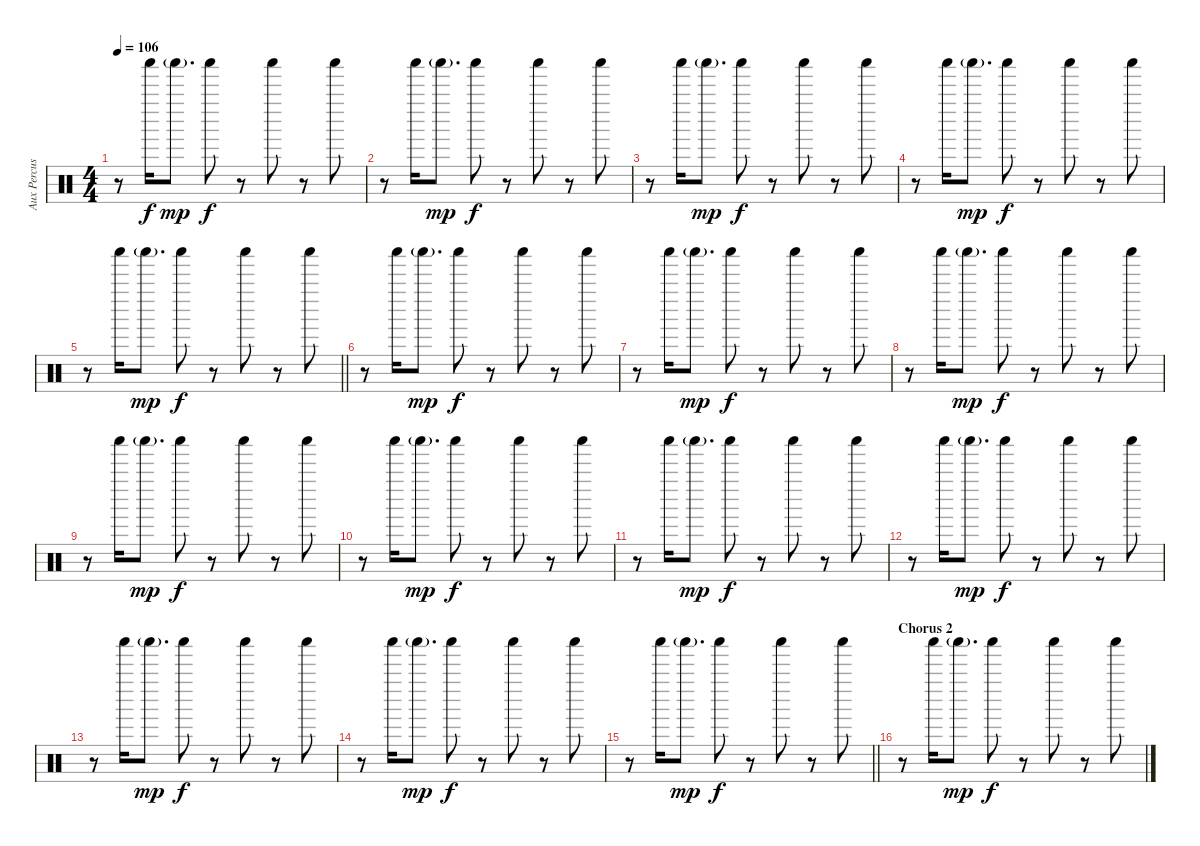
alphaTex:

\track ("Aux Percussion" "Aux Percus") {instrument percussion}
\staff {score}
\articulation defaults
\ts (4 4)
\tempo 106
\clef neutral
\ks c
r.8{dy f} "Shaker (hit)".16 "Shaker (hit)"{g}.8{d dy mp} "Shaker (hit)".8{dy f} r.8 "Shaker (hit)".8 r.8 "Shaker (hit)".8 |
r.8 "Shaker (hit)".16 "Shaker (hit)"{g}.8{d dy mp} "Shaker (hit)".8{dy f} r.8 "Shaker (hit)".8 r.8 "Shaker (hit)".8 |
r.8 "Shaker (hit)".16 "Shaker (hit)"{g}.8{d dy mp} "Shaker (hit)".8{dy f} r.8 "Shaker (hit)".8 r.8 "Shaker (hit)".8 |
r.8 "Shaker (hit)".16 "Shaker (hit)"{g}.8{d dy mp} "Shaker (hit)".8{dy f} r.8 "Shaker (hit)".8 r.8 "Shaker (hit)".8 |
\barLineRight lightlight
r.8 "Shaker (hit)".16 "Shaker (hit)"{g}.8{d dy mp} "Shaker (hit)".8{dy f} r.8 "Shaker (hit)".8 r.8 "Shaker (hit)".8 |
r.8 "Shaker (hit)".16 "Shaker (hit)"{g}.8{d dy mp} "Shaker (hit)".8{dy f} r.8 "Shaker (hit)".8 r.8 "Shaker (hit)".8 |
r.8 "Shaker (hit)".16 "Shaker (hit)"{g}.8{d dy mp} "Shaker (hit)".8{dy f} r.8 "Shaker (hit)".8 r.8 "Shaker (hit)".8 |
r.8 "Shaker (hit)".16 "Shaker (hit)"{g}.8{d dy mp} "Shaker (hit)".8{dy f} r.8 "Shaker (hit)".8 r.8 "Shaker (hit)".8 |
r.8 "Shaker (hit)".16 "Shaker (hit)"{g}.8{d dy mp} "Shaker (hit)".8{dy f} r.8 "Shaker (hit)".8 r.8 "Shaker (hit)".8 |
r.8 "Shaker (hit)".16 "Shaker (hit)"{g}.8{d dy mp} "Shaker (hit)".8{dy f} r.8 "Shaker (hit)".8 r.8 "Shaker (hit)".8 |
r.8 "Shaker (hit)".16 "Shaker (hit)"{g}.8{d dy mp} "Shaker (hit)".8{dy f} r.8 "Shaker (hit)".8 r.8 "Shaker (hit)".8 |
r.8 "Shaker (hit)".16 "Shaker (hit)"{g}.8{d dy mp} "Shaker (hit)".8{dy f} r.8 "Shaker (hit)".8 r.8 "Shaker (hit)".8 |
r.8 "Shaker (hit)".16 "Shaker (hit)"{g}.8{d dy mp} "Shaker (hit)".8{dy f} r.8 "Shaker (hit)".8 r.8 "Shaker (hit)".8 |
r.8 "Shaker (hit)".16 "Shaker (hit)"{g}.8{d dy mp} "Shaker (hit)".8{dy f} r.8 "Shaker (hit)".8 r.8 "Shaker (hit)".8 |
\barLineRight lightlight
r.8 "Shaker (hit)".16 "Shaker (hit)"{g}.8{d dy mp} "Shaker (hit)".8{dy f} r.8 "Shaker (hit)".8 r.8 "Shaker (hit)".8 |
\section ("" "Chorus 2")
r.8 "Shaker (hit)".16 "Shaker (hit)"{g}.8{d dy mp} "Shaker (hit)".8{dy f} r.8 "Shaker (hit)".8 r.8 "Shaker (hit)".8
